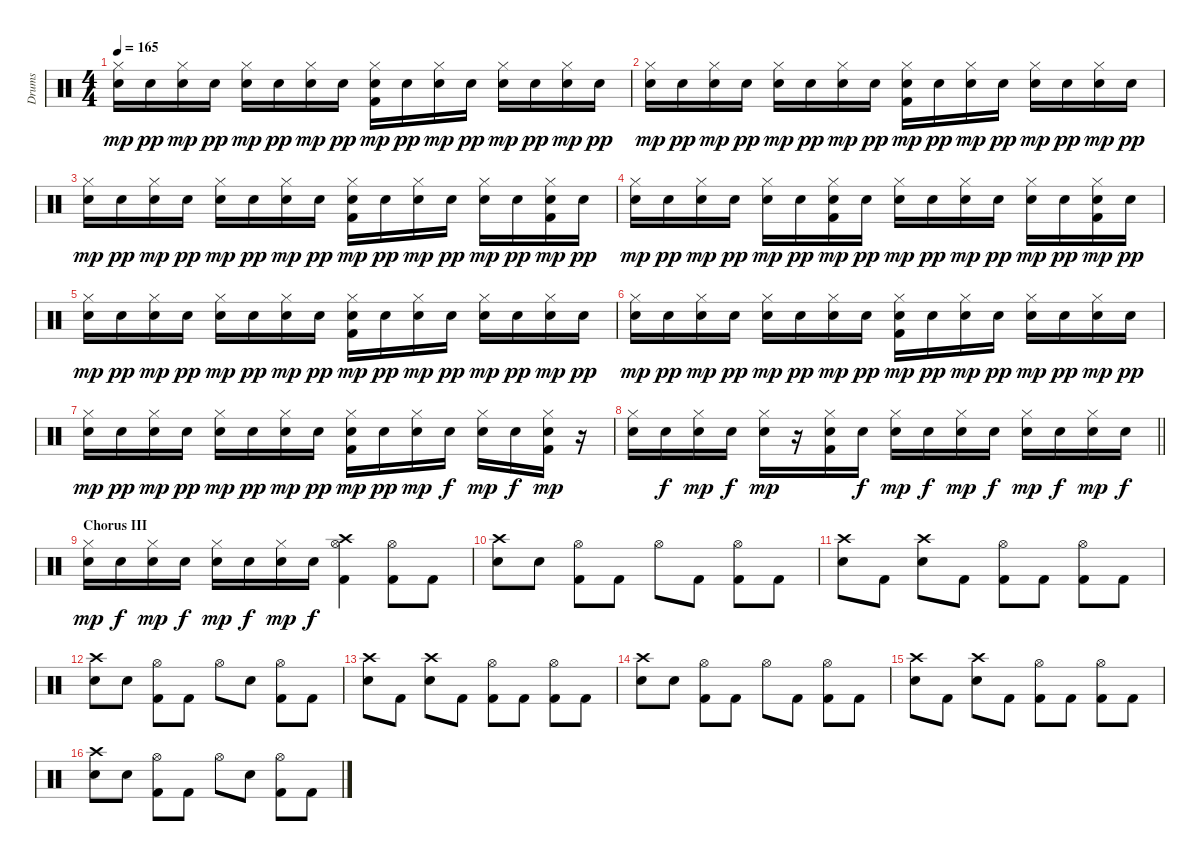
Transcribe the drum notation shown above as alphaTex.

\track ("Drums" "Drums") {instrument percussion}
\staff {score}
\articulation defaults
\ts (4 4)
\tempo 165
\clef neutral
\ks c
("Electric Snare (hit)" "Hi-Hat (closed)").16{dy mp} "Snare (hit) 2".16{dy pp} ("Snare (hit) 2" "Hi-Hat (closed)").16{dy mp} "Snare (hit) 2".16{dy pp} ("Electric Snare (hit)" "Hi-Hat (closed)").16{dy mp} "Snare (hit) 2".16{dy pp} ("Electric Snare (hit)" "Hi-Hat (closed)").16{dy mp} "Snare (hit) 2".16{dy pp} ("Kick (hit) 2" "Snare (hit) 2" "Hi-Hat (closed)").16{dy mp} "Snare (hit) 2".16{dy pp} ("Snare (hit) 2" "Hi-Hat (closed)").16{dy mp} "Snare (hit) 2".16{dy pp} ("Snare (hit) 2" "Hi-Hat (closed)").16{dy mp} "Snare (hit) 2".16{dy pp} ("Snare (hit) 2" "Hi-Hat (closed)").16{dy mp} "Snare (hit) 2".16{dy pp} |
("Electric Snare (hit)" "Hi-Hat (closed)").16{dy mp} "Snare (hit) 2".16{dy pp} ("Snare (hit) 2" "Hi-Hat (closed)").16{dy mp} "Snare (hit) 2".16{dy pp} ("Snare (hit) 2" "Hi-Hat (closed)").16{dy mp} "Snare (hit) 2".16{dy pp} ("Snare (hit) 2" "Hi-Hat (closed)").16{dy mp} "Snare (hit) 2".16{dy pp} ("Kick (hit) 2" "Snare (hit) 2" "Hi-Hat (closed)").16{dy mp} "Snare (hit) 2".16{dy pp} ("Snare (hit) 2" "Hi-Hat (closed)").16{dy mp} "Snare (hit) 2".16{dy pp} ("Snare (hit) 2" "Hi-Hat (closed)").16{dy mp} "Snare (hit) 2".16{dy pp} ("Snare (hit) 2" "Hi-Hat (closed)").16{dy mp} "Snare (hit) 2".16{dy pp} |
("Electric Snare (hit)" "Hi-Hat (closed)").16{dy mp} "Snare (hit) 2".16{dy pp} ("Snare (hit) 2" "Hi-Hat (closed)").16{dy mp} "Snare (hit) 2".16{dy pp} ("Electric Snare (hit)" "Hi-Hat (closed)").16{dy mp} "Snare (hit) 2".16{dy pp} ("Snare (hit) 2" "Hi-Hat (closed)").16{dy mp} "Snare (hit) 2".16{dy pp} ("Kick (hit) 2" "Snare (hit) 2" "Hi-Hat (closed)").16{dy mp} "Snare (hit) 2".16{dy pp} ("Snare (hit) 2" "Hi-Hat (closed)").16{dy mp} "Snare (hit) 2".16{dy pp} ("Snare (hit) 2" "Hi-Hat (closed)").16{dy mp} "Snare (hit) 2".16{dy pp} ("Kick (hit) 2" "Snare (hit) 2" "Hi-Hat (closed)").16{dy mp} "Snare (hit) 2".16{dy pp volume 8} |
("Electric Snare (hit)" "Hi-Hat (closed)").16{dy mp volume 12} "Snare (hit) 2".16{dy pp} ("Electric Snare (hit)" "Hi-Hat (closed)").16{dy mp} "Snare (hit) 2".16{dy pp} ("Snare (hit) 2" "Hi-Hat (closed)").16{dy mp} "Snare (hit) 2".16{dy pp} ("Kick (hit) 2" "Snare (hit) 2" "Hi-Hat (closed)").16{dy mp} "Snare (hit) 2".16{dy pp} ("Electric Snare (hit)" "Hi-Hat (closed)").16{dy mp} "Snare (hit) 2".16{dy pp} ("Electric Snare (hit)" "Hi-Hat (closed)").16{dy mp} "Snare (hit) 2".16{dy pp} ("Snare (hit) 2" "Hi-Hat (closed)").16{dy mp} "Snare (hit) 2".16{dy pp} ("Kick (hit) 2" "Snare (hit) 2" "Hi-Hat (closed)").16{dy mp} "Snare (hit) 2".16{dy pp} |
("Electric Snare (hit)" "Hi-Hat (closed)").16{dy mp} "Snare (hit) 2".16{dy pp} ("Snare (hit) 2" "Hi-Hat (closed)").16{dy mp} "Snare (hit) 2".16{dy pp} ("Electric Snare (hit)" "Hi-Hat (closed)").16{dy mp} "Snare (hit) 2".16{dy pp} ("Electric Snare (hit)" "Hi-Hat (closed)").16{dy mp} "Snare (hit) 2".16{dy pp} ("Kick (hit) 2" "Snare (hit) 2" "Hi-Hat (closed)").16{dy mp} "Snare (hit) 2".16{dy pp} ("Snare (hit) 2" "Hi-Hat (closed)").16{dy mp} "Snare (hit) 2".16{dy pp} ("Snare (hit) 2" "Hi-Hat (closed)").16{dy mp} "Snare (hit) 2".16{dy pp} ("Snare (hit) 2" "Hi-Hat (closed)").16{dy mp} "Snare (hit) 2".16{dy pp} |
("Electric Snare (hit)" "Hi-Hat (closed)").16{dy mp} "Snare (hit) 2".16{dy pp} ("Snare (hit) 2" "Hi-Hat (closed)").16{dy mp} "Snare (hit) 2".16{dy pp} ("Snare (hit) 2" "Hi-Hat (closed)").16{dy mp} "Snare (hit) 2".16{dy pp} ("Snare (hit) 2" "Hi-Hat (closed)").16{dy mp} "Snare (hit) 2".16{dy pp} ("Kick (hit) 2" "Snare (hit) 2" "Hi-Hat (closed)").16{dy mp} "Snare (hit) 2".16{dy pp} ("Snare (hit) 2" "Hi-Hat (closed)").16{dy mp} "Snare (hit) 2".16{dy pp} ("Snare (hit) 2" "Hi-Hat (closed)").16{dy mp} "Snare (hit) 2".16{dy pp} ("Snare (hit) 2" "Hi-Hat (closed)").16{dy mp} "Snare (hit) 2".16{dy pp} |
("Electric Snare (hit)" "Hi-Hat (closed)").16{dy mp} "Snare (hit) 2".16{dy pp} ("Snare (hit) 2" "Hi-Hat (closed)").16{dy mp} "Snare (hit) 2".16{dy pp} ("Electric Snare (hit)" "Hi-Hat (closed)").16{dy mp} "Snare (hit) 2".16{dy pp} ("Snare (hit) 2" "Hi-Hat (closed)").16{dy mp} "Snare (hit) 2".16{dy pp} ("Kick (hit) 2" "Snare (hit) 2" "Hi-Hat (closed)").16{dy mp} "Snare (hit) 2".16{dy pp} ("Electric Snare (hit)" "Hi-Hat (closed)").16{dy mp} "Electric Snare (hit)".16{dy f} ("Electric Snare (hit)" "Hi-Hat (closed)").16{dy mp} "Electric Snare (hit)".16{dy f} ("Kick (hit) 2" "Snare (hit) 2" "Hi-Hat (closed)").16{dy mp} r.16 |
\barLineRight lightlight
("Electric Snare (hit)" "Hi-Hat (closed)").16 "Electric Snare (hit)".16{dy f} ("Electric Snare (hit)" "Hi-Hat (closed)").16{dy mp} "Electric Snare (hit)".16{dy f} ("Electric Snare (hit)" "Hi-Hat (closed)").16{dy mp} r.16 ("Kick (hit) 2" "Snare (hit) 2" "Hi-Hat (closed)").16 "Electric Snare (hit)".16{dy f} ("Electric Snare (hit)" "Hi-Hat (closed)").16{dy mp} "Electric Snare (hit)".16{dy f} ("Electric Snare (hit)" "Hi-Hat (closed)").16{dy mp} "Electric Snare (hit)".16{dy f} ("Electric Snare (hit)" "Hi-Hat (closed)").16{dy mp} "Electric Snare (hit)".16{dy f} ("Electric Snare (hit)" "Hi-Hat (closed)").16{dy mp} "Electric Snare (hit)".16{dy f} |
\section ("" "Chorus III")
("Electric Snare (hit)" "Hi-Hat (closed)").16{dy mp} "Electric Snare (hit)".16{dy f} ("Electric Snare (hit)" "Hi-Hat (closed)").16{dy mp} "Electric Snare (hit)".16{dy f} ("Electric Snare (hit)" "Hi-Hat (closed)").16{dy mp} "Electric Snare (hit)".16{dy f} ("Electric Snare (hit)" "Hi-Hat (closed)").16{dy mp} "Electric Snare (hit)".16{dy f} ("Crash high (hit)" "Hi-Hat (open)" "Kick (hit) 2").4 ("Hi-Hat (open)" "Kick (hit) 2").8 "Kick (hit) 2".8 |
("Crash high (hit)" "Electric Snare (hit)").8 "Electric Snare (hit)".8 ("Hi-Hat (open)" "Kick (hit) 2").8 "Kick (hit) 2".8 "Hi-Hat (open)".8 "Kick (hit) 2".8 ("Hi-Hat (open)" "Kick (hit) 2").8 "Kick (hit) 2".8 |
("Crash high (hit)" "Electric Snare (hit)").8 "Kick (hit) 2".8 ("Crash high (hit)" "Electric Snare (hit)").8 "Kick (hit) 2".8 ("Hi-Hat (open)" "Kick (hit) 2").8 "Kick (hit) 2".8 ("Hi-Hat (open)" "Kick (hit) 2").8 "Kick (hit) 2".8 |
("Crash high (hit)" "Electric Snare (hit)").8 "Electric Snare (hit)".8 ("Hi-Hat (open)" "Kick (hit) 2").8 "Kick (hit) 2".8 "Hi-Hat (open)".8 "Electric Snare (hit)".8 ("Hi-Hat (open)" "Kick (hit) 2").8 "Kick (hit) 2".8 |
("Crash high (hit)" "Electric Snare (hit)").8 "Kick (hit) 2".8 ("Crash high (hit)" "Electric Snare (hit)").8 "Kick (hit) 2".8 ("Hi-Hat (open)" "Kick (hit) 2").8 "Kick (hit) 2".8 ("Hi-Hat (open)" "Kick (hit) 2").8 "Kick (hit) 2".8 |
("Crash high (hit)" "Electric Snare (hit)").8 "Electric Snare (hit)".8 ("Hi-Hat (open)" "Kick (hit) 2").8 "Kick (hit) 2".8 "Hi-Hat (open)".8 "Kick (hit) 2".8 ("Hi-Hat (open)" "Kick (hit) 2").8 "Kick (hit) 2".8 |
("Crash high (hit)" "Electric Snare (hit)").8 "Kick (hit) 2".8 ("Crash high (hit)" "Electric Snare (hit)").8 "Kick (hit) 2".8 ("Hi-Hat (open)" "Kick (hit) 2").8 "Kick (hit) 2".8 ("Hi-Hat (open)" "Kick (hit) 2").8 "Kick (hit) 2".8 |
("Crash high (hit)" "Electric Snare (hit)").8 "Electric Snare (hit)".8 ("Hi-Hat (open)" "Kick (hit) 2").8 "Kick (hit) 2".8 "Hi-Hat (open)".8 "Electric Snare (hit)".8 ("Hi-Hat (open)" "Kick (hit) 2").8 "Kick (hit) 2".8
